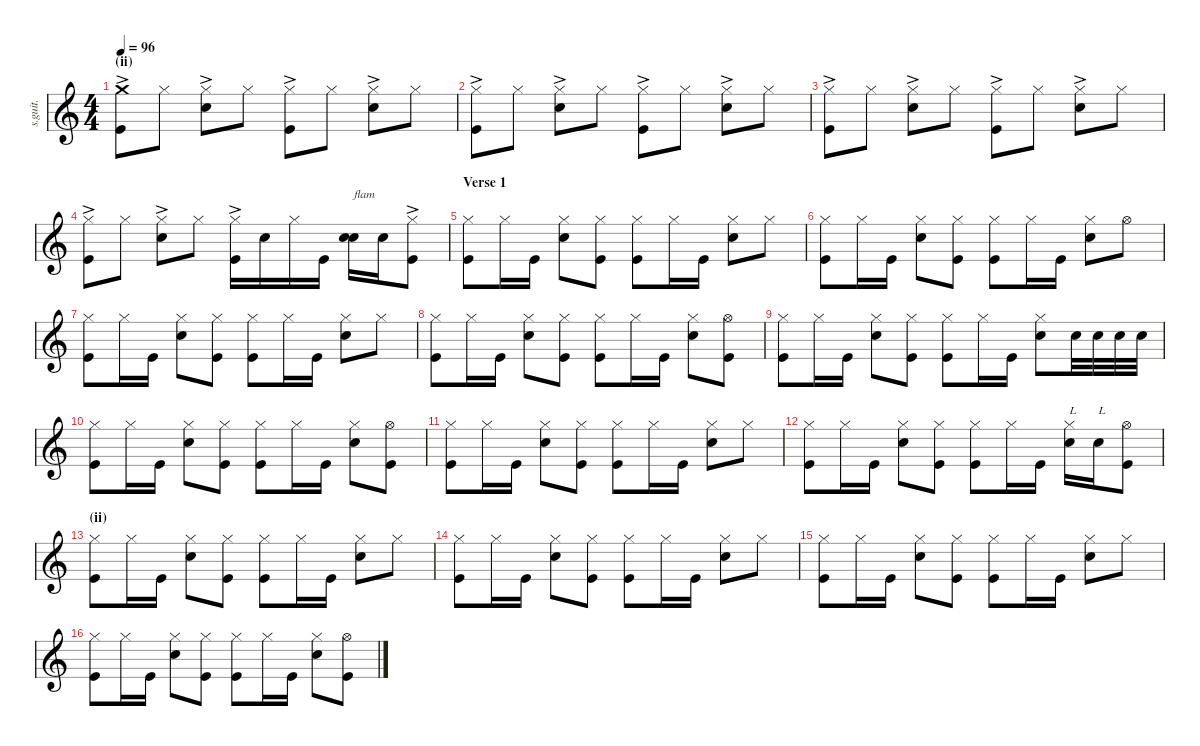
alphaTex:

\defaultSystemsLayout 4
\hideDynamics
\bracketExtendMode nobrackets
\track ("Chad Smith" "s.guit.") {instrument percussion}
\staff {score}
\articulation defaults
\ts (4 4)
\section ("" "(ii)")
\tempo 96
\clef g2
\ks c
("Crash medium (hit)"{ac} "Kick (hit)").8{dy f} "Hi-Hat (closed)".8 ("Hi-Hat (closed)"{ac} "Snare (hit) 2").8 "Hi-Hat (closed)".8 ("Hi-Hat (closed)"{ac} "Kick (hit)").8 "Hi-Hat (closed)".8 ("Hi-Hat (closed)"{ac} "Snare (hit) 2").8 "Hi-Hat (closed)".8 |
("Hi-Hat (closed)"{ac} "Kick (hit)").8 "Hi-Hat (closed)".8 ("Hi-Hat (closed)"{ac} "Snare (hit) 2").8 "Hi-Hat (closed)".8 ("Hi-Hat (closed)"{ac} "Kick (hit)").8 "Hi-Hat (closed)".8 ("Hi-Hat (closed)"{ac} "Snare (hit) 2").8 "Hi-Hat (closed)".8 |
("Hi-Hat (closed)"{ac} "Kick (hit)").8 "Hi-Hat (closed)".8 ("Hi-Hat (closed)"{ac} "Snare (hit) 2").8 "Hi-Hat (closed)".8 ("Hi-Hat (closed)"{ac} "Kick (hit)").8 "Hi-Hat (closed)".8 ("Hi-Hat (closed)"{ac} "Snare (hit) 2").8 "Hi-Hat (closed)".8 |
("Hi-Hat (closed)"{ac} "Kick (hit)").8 "Hi-Hat (closed)".8 ("Hi-Hat (closed)"{ac} "Snare (hit) 2").8 "Hi-Hat (closed)".8 ("Hi-Hat (closed)"{ac} "Kick (hit)").16 "Snare (hit) 2".16 "Hi-Hat (closed)".16 "Kick (hit)".16 ("Snare (hit) 2" "Snare (hit) 2").16{bd 30 txt "flam"} "Snare (hit) 2".16 ("Hi-Hat (closed)"{ac} "Kick (hit)").8 |
\section ("" "Verse 1")
("Hi-Hat (closed)" "Kick (hit)").8 "Hi-Hat (closed)".16 "Kick (hit)".16 ("Hi-Hat (closed)" "Snare (hit) 2").8 ("Hi-Hat (closed)" "Kick (hit)").8 ("Hi-Hat (closed)" "Kick (hit)").8 "Hi-Hat (closed)".16 "Kick (hit)".16 ("Hi-Hat (closed)" "Snare (hit) 2").8 "Hi-Hat (closed)".8 |
("Hi-Hat (closed)" "Kick (hit)").8 "Hi-Hat (closed)".16 "Kick (hit)".16 ("Hi-Hat (closed)" "Snare (hit) 2").8 ("Hi-Hat (closed)" "Kick (hit)").8 ("Hi-Hat (closed)" "Kick (hit)").8 "Hi-Hat (closed)".16 "Kick (hit)".16 ("Hi-Hat (closed)" "Snare (hit) 2").8 "Hi-Hat (open)".8 |
("Hi-Hat (closed)" "Kick (hit)").8 "Hi-Hat (closed)".16 "Kick (hit)".16 ("Hi-Hat (closed)" "Snare (hit) 2").8 ("Hi-Hat (closed)" "Kick (hit)").8 ("Hi-Hat (closed)" "Kick (hit)").8 "Hi-Hat (closed)".16 "Kick (hit)".16 ("Hi-Hat (closed)" "Snare (hit) 2").8 "Hi-Hat (closed)".8 |
("Hi-Hat (closed)" "Kick (hit)").8 "Hi-Hat (closed)".16 "Kick (hit)".16 ("Hi-Hat (closed)" "Snare (hit) 2").8 ("Hi-Hat (closed)" "Kick (hit)").8 ("Hi-Hat (closed)" "Kick (hit)").8 "Hi-Hat (closed)".16 "Kick (hit)".16 ("Hi-Hat (closed)" "Snare (hit) 2").8 ("Hi-Hat (open)" "Kick (hit)").8 |
("Hi-Hat (closed)" "Kick (hit)").8 "Hi-Hat (closed)".16 "Kick (hit)".16 ("Hi-Hat (closed)" "Snare (hit) 2").8 ("Hi-Hat (closed)" "Kick (hit)").8 ("Hi-Hat (closed)" "Kick (hit)").8 "Hi-Hat (closed)".16 "Kick (hit)".16 ("Hi-Hat (closed)" "Snare (hit) 2").8 "Snare (hit) 2".32 "Snare (hit) 2".32 "Snare (hit) 2".32 "Snare (hit) 2".32 |
("Hi-Hat (closed)" "Kick (hit)").8 "Hi-Hat (closed)".16 "Kick (hit)".16 ("Hi-Hat (closed)" "Snare (hit) 2").8 ("Hi-Hat (closed)" "Kick (hit)").8 ("Hi-Hat (closed)" "Kick (hit)").8 "Hi-Hat (closed)".16 "Kick (hit)".16 ("Hi-Hat (closed)" "Snare (hit) 2").8 ("Hi-Hat (open)" "Kick (hit)").8 |
("Hi-Hat (closed)" "Kick (hit)").8 "Hi-Hat (closed)".16 "Kick (hit)".16 ("Hi-Hat (closed)" "Snare (hit) 2").8 ("Hi-Hat (closed)" "Kick (hit)").8 ("Hi-Hat (closed)" "Kick (hit)").8 "Hi-Hat (closed)".16 "Kick (hit)".16 ("Hi-Hat (closed)" "Snare (hit) 2").8 "Hi-Hat (closed)".8 |
("Hi-Hat (closed)" "Kick (hit)").8 "Hi-Hat (closed)".16 "Kick (hit)".16 ("Hi-Hat (closed)" "Snare (hit) 2").8 ("Hi-Hat (closed)" "Kick (hit)").8 ("Hi-Hat (closed)" "Kick (hit)").8 "Hi-Hat (closed)".16 "Kick (hit)".16 ("Hi-Hat (closed)" "Snare (hit) 2").16{txt "L"} "Snare (hit) 2".16{txt "L"} ("Hi-Hat (open)" "Kick (hit)").8 |
\section ("" "(ii)")
("Hi-Hat (closed)" "Kick (hit)").8 "Hi-Hat (closed)".16 "Kick (hit)".16 ("Hi-Hat (closed)" "Snare (hit) 2").8 ("Hi-Hat (closed)" "Kick (hit)").8 ("Hi-Hat (closed)" "Kick (hit)").8 "Hi-Hat (closed)".16 "Kick (hit)".16 ("Hi-Hat (closed)" "Snare (hit) 2").8 "Hi-Hat (closed)".8 |
("Hi-Hat (closed)" "Kick (hit)").8 "Hi-Hat (closed)".16 "Kick (hit)".16 ("Hi-Hat (closed)" "Snare (hit) 2").8 ("Hi-Hat (closed)" "Kick (hit)").8 ("Hi-Hat (closed)" "Kick (hit)").8 "Hi-Hat (closed)".16 "Kick (hit)".16 ("Hi-Hat (closed)" "Snare (hit) 2").8 "Hi-Hat (closed)".8 |
("Hi-Hat (closed)" "Kick (hit)").8 "Hi-Hat (closed)".16 "Kick (hit)".16 ("Hi-Hat (closed)" "Snare (hit) 2").8 ("Hi-Hat (closed)" "Kick (hit)").8 ("Hi-Hat (closed)" "Kick (hit)").8 "Hi-Hat (closed)".16 "Kick (hit)".16 ("Hi-Hat (closed)" "Snare (hit) 2").8 "Hi-Hat (closed)".8 |
("Hi-Hat (closed)" "Kick (hit)").8 "Hi-Hat (closed)".16 "Kick (hit)".16 ("Hi-Hat (closed)" "Snare (hit) 2").8 ("Hi-Hat (closed)" "Kick (hit)").8 ("Hi-Hat (closed)" "Kick (hit)").8 "Hi-Hat (closed)".16 "Kick (hit)".16 ("Hi-Hat (closed)" "Snare (hit) 2").8 ("Hi-Hat (open)" "Kick (hit)").8
